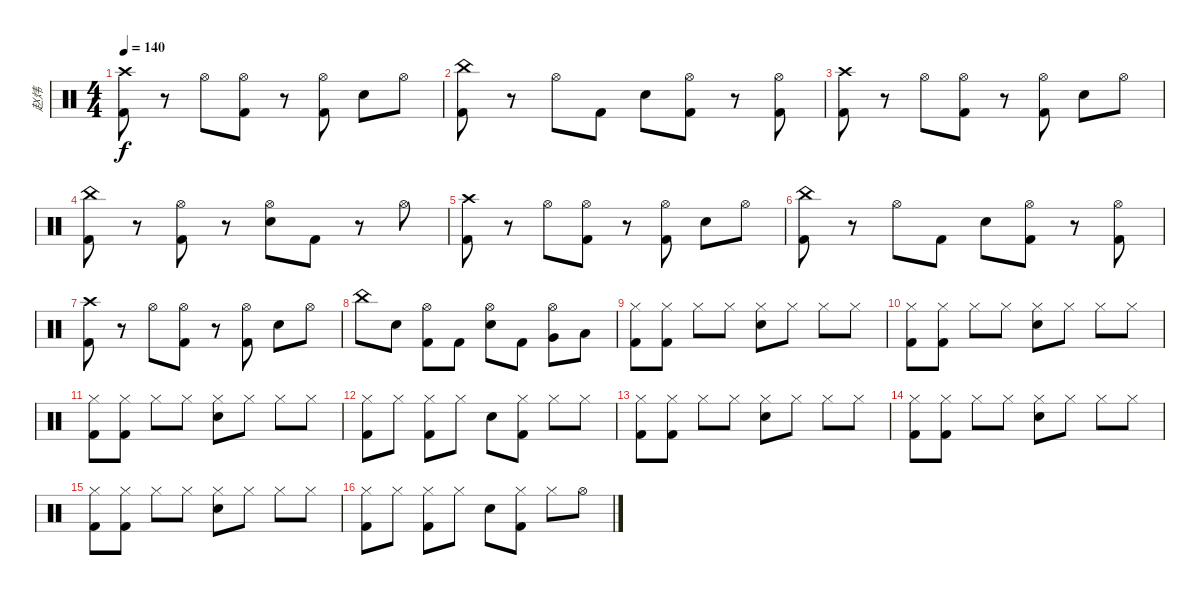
\track ("赵炜" "赵炜") {instrument percussion}
\staff {score}
\articulation defaults
\ts (4 4)
\tempo 140
\clef neutral
\ks c
("Crash high (hit)" "Kick (hit) 2").8{dy f} r.8 "Hi-Hat (open)".8 ("Hi-Hat (open)" "Kick (hit) 2").8 r.8 ("Hi-Hat (open)" "Kick (hit) 2").8 "Snare (hit) 2".8 "Hi-Hat (open)".8 |
("China (hit)" "Kick (hit) 2").8 r.8 "Hi-Hat (open)".8 "Kick (hit) 2".8 "Snare (hit) 2".8 ("Hi-Hat (open)" "Kick (hit) 2").8 r.8 ("Hi-Hat (open)" "Kick (hit) 2").8 |
("Crash high (hit)" "Kick (hit) 2").8 r.8 "Hi-Hat (open)".8 ("Hi-Hat (open)" "Kick (hit) 2").8 r.8 ("Hi-Hat (open)" "Kick (hit) 2").8 "Snare (hit) 2".8 "Hi-Hat (open)".8 |
("China (hit)" "Kick (hit) 2").8 r.8 ("Hi-Hat (open)" "Kick (hit) 2").8 r.8 ("Hi-Hat (open)" "Snare (hit) 2").8 "Kick (hit) 2".8 r.8 "Hi-Hat (open)".8 |
("Crash high (hit)" "Kick (hit) 2").8 r.8 "Hi-Hat (open)".8 ("Hi-Hat (open)" "Kick (hit) 2").8 r.8 ("Hi-Hat (open)" "Kick (hit) 2").8 "Snare (hit) 2".8 "Hi-Hat (open)".8 |
("China (hit)" "Kick (hit) 2").8 r.8 "Hi-Hat (open)".8 "Kick (hit) 2".8 "Snare (hit) 2".8 ("Hi-Hat (open)" "Kick (hit) 2").8 r.8 ("Hi-Hat (open)" "Kick (hit) 2").8 |
("Crash high (hit)" "Kick (hit) 2").8 r.8 "Hi-Hat (open)".8 ("Hi-Hat (open)" "Kick (hit) 2").8 r.8 ("Hi-Hat (open)" "Kick (hit) 2").8 "Snare (hit) 2".8 "Hi-Hat (open)".8 |
"China (hit)".8 "Snare (hit) 2".8 ("Hi-Hat (open)" "Kick (hit) 2").8 "Kick (hit) 2".8 ("Hi-Hat (open)" "Snare (hit) 2").8 "Kick (hit) 2".8 ("Hi-Hat (open)" "Very Low Tom (hit)").8 "Low Floor Tom (hit)".8 |
("Hi-Hat (closed)" "Kick (hit) 2").8 ("Hi-Hat (closed)" "Kick (hit) 2").8 "Hi-Hat (closed)".8 "Hi-Hat (closed)".8 ("Hi-Hat (closed)" "Snare (hit) 2").8 "Hi-Hat (closed)".8 "Hi-Hat (closed)".8 "Hi-Hat (closed)".8 |
("Hi-Hat (closed)" "Kick (hit) 2").8 ("Hi-Hat (closed)" "Kick (hit) 2").8 "Hi-Hat (closed)".8 "Hi-Hat (closed)".8 ("Hi-Hat (closed)" "Snare (hit) 2").8 "Hi-Hat (closed)".8 "Hi-Hat (closed)".8 "Hi-Hat (closed)".8 |
("Hi-Hat (closed)" "Kick (hit) 2").8 ("Hi-Hat (closed)" "Kick (hit) 2").8 "Hi-Hat (closed)".8 "Hi-Hat (closed)".8 ("Hi-Hat (closed)" "Snare (hit) 2").8 "Hi-Hat (closed)".8 "Hi-Hat (closed)".8 "Hi-Hat (closed)".8 |
("Hi-Hat (closed)" "Kick (hit) 2").8 "Hi-Hat (closed)".8 ("Hi-Hat (closed)" "Kick (hit) 2").8 "Hi-Hat (closed)".8 "Snare (hit) 2".8 ("Hi-Hat (closed)" "Kick (hit) 2").8 "Hi-Hat (closed)".8 "Hi-Hat (closed)".8 |
("Hi-Hat (closed)" "Kick (hit) 2").8 ("Hi-Hat (closed)" "Kick (hit) 2").8 "Hi-Hat (closed)".8 "Hi-Hat (closed)".8 ("Hi-Hat (closed)" "Snare (hit) 2").8 "Hi-Hat (closed)".8 "Hi-Hat (closed)".8 "Hi-Hat (closed)".8 |
("Hi-Hat (closed)" "Kick (hit) 2").8 ("Hi-Hat (closed)" "Kick (hit) 2").8 "Hi-Hat (closed)".8 "Hi-Hat (closed)".8 ("Hi-Hat (closed)" "Snare (hit) 2").8 "Hi-Hat (closed)".8 "Hi-Hat (closed)".8 "Hi-Hat (closed)".8 |
("Hi-Hat (closed)" "Kick (hit) 2").8 ("Hi-Hat (closed)" "Kick (hit) 2").8 "Hi-Hat (closed)".8 "Hi-Hat (closed)".8 ("Hi-Hat (closed)" "Snare (hit) 2").8 "Hi-Hat (closed)".8 "Hi-Hat (closed)".8 "Hi-Hat (closed)".8 |
("Hi-Hat (closed)" "Kick (hit) 2").8 "Hi-Hat (closed)".8 ("Hi-Hat (closed)" "Kick (hit) 2").8 "Hi-Hat (closed)".8 "Snare (hit) 2".8 ("Hi-Hat (closed)" "Kick (hit) 2").8 "Hi-Hat (closed)".8 "Hi-Hat (open)".8
